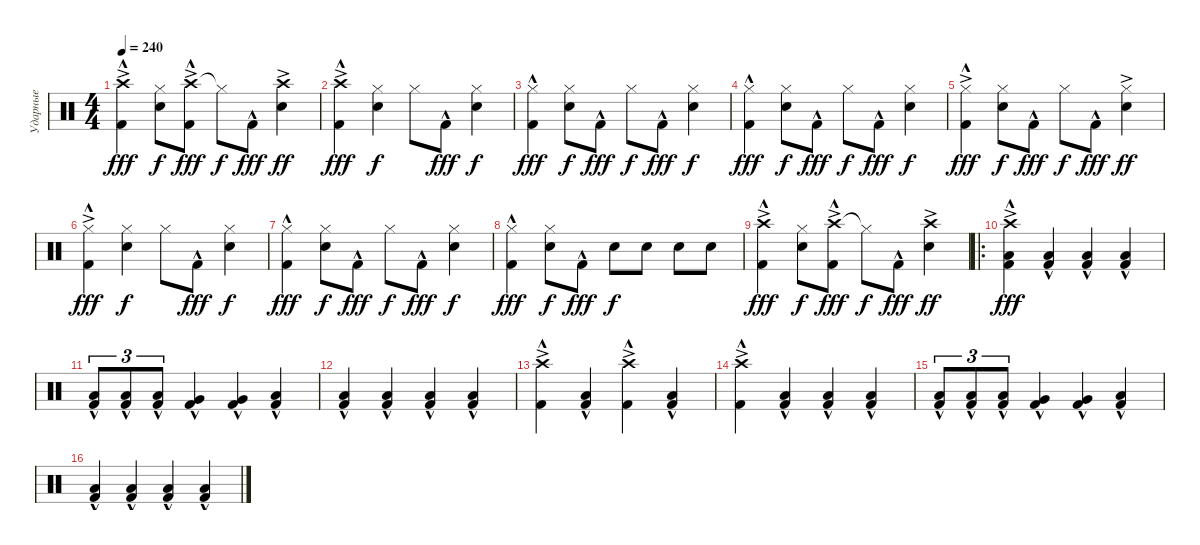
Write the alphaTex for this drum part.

\track ("Ударные" "Ударные") {instrument percussion}
\staff {score}
\articulation defaults
\ts (4 4)
\tempo 240
\clef neutral
\ks c
("Crash high (hit)"{ac} "Kick (hit) 2"{hac}).4{dy fff} ("Hi-Hat (closed)" "Snare (hit) 2").8{dy f} ("Crash high (hit)"{ac} "Kick (hit) 2"{hac}).8{dy fff} "Hi-Hat (closed)"{t}.8{dy f} "Kick (hit) 2"{hac}.8{dy fff} ("Crash high (hit)"{ac} "Snare (hit) 2").4{dy ff} |
("Crash high (hit)"{ac} "Kick (hit) 2"{hac}).4{dy fff} ("Hi-Hat (closed)" "Snare (hit) 2").4{dy f} "Hi-Hat (closed)".8 "Kick (hit) 2"{hac}.8{dy fff} ("Hi-Hat (closed)" "Snare (hit) 2").4{dy f} |
("Hi-Hat (closed)" "Kick (hit) 2"{hac}).4{dy fff} ("Hi-Hat (closed)" "Snare (hit) 2").8{dy f} "Kick (hit) 2"{hac}.8{dy fff} "Hi-Hat (closed)".8{dy f} "Kick (hit) 2"{hac}.8{dy fff} ("Hi-Hat (closed)" "Snare (hit) 2").4{dy f} |
("Hi-Hat (closed)" "Kick (hit) 2"{hac}).4{dy fff} ("Hi-Hat (closed)" "Snare (hit) 2").8{dy f} "Kick (hit) 2"{hac}.8{dy fff} "Hi-Hat (closed)".8{dy f} "Kick (hit) 2"{hac}.8{dy fff} ("Hi-Hat (closed)" "Snare (hit) 2").4{dy f} |
("Hi-Hat (closed)"{ac} "Kick (hit) 2"{hac}).4{dy fff} ("Hi-Hat (closed)" "Snare (hit) 2").8{dy f} "Kick (hit) 2"{hac}.8{dy fff} "Hi-Hat (closed)".8{dy f} "Kick (hit) 2"{hac}.8{dy fff} ("Hi-Hat (closed)"{ac} "Snare (hit) 2").4{dy ff} |
("Hi-Hat (closed)"{ac} "Kick (hit) 2"{hac}).4{dy fff} ("Hi-Hat (closed)" "Snare (hit) 2").4{dy f} "Hi-Hat (closed)".8 "Kick (hit) 2"{hac}.8{dy fff} ("Hi-Hat (closed)" "Snare (hit) 2").4{dy f} |
("Hi-Hat (closed)" "Kick (hit) 2"{hac}).4{dy fff} ("Hi-Hat (closed)" "Snare (hit) 2").8{dy f} "Kick (hit) 2"{hac}.8{dy fff} "Hi-Hat (closed)".8{dy f} "Kick (hit) 2"{hac}.8{dy fff} ("Hi-Hat (closed)" "Snare (hit) 2").4{dy f} |
("Hi-Hat (closed)" "Kick (hit) 2"{hac}).4{dy fff} ("Hi-Hat (closed)" "Snare (hit) 2").8{dy f} "Kick (hit) 2"{hac}.8{dy fff} "Snare (hit) 2".8{dy f} "Snare (hit) 2".8 "Snare (hit) 2".8 "Snare (hit) 2".8 |
("Crash high (hit)"{ac} "Kick (hit) 2"{hac}).4{dy fff} ("Hi-Hat (closed)" "Snare (hit) 2").8{dy f} ("Crash high (hit)"{ac} "Kick (hit) 2"{hac}).8{dy fff} "Hi-Hat (closed)"{t}.8{dy f} "Kick (hit) 2"{hac}.8{dy fff} ("Crash high (hit)"{ac} "Snare (hit) 2").4{dy ff} |
\ro
("Crash high (hit)"{ac} "Low Floor Tom (hit)"{hac} "Kick (hit) 2"{hac}).4{dy fff} ("Low Floor Tom (hit)"{hac} "Kick (hit) 2"{hac}).4 ("Low Floor Tom (hit)"{hac} "Kick (hit) 2"{hac}).4 ("Low Floor Tom (hit)"{hac} "Kick (hit) 2"{hac}).4 |
("Low Tom (hit)"{hac} "Kick (hit) 2"{hac}).8{tu (3 2)} ("Low Tom (hit)"{hac} "Kick (hit) 2"{hac}).8{tu (3 2)} ("Low Tom (hit)"{hac} "Kick (hit) 2"{hac}).8{tu (3 2)} ("Very Low Tom (hit)"{hac} "Kick (hit) 2"{hac}).4 ("Very Low Tom (hit)"{hac} "Kick (hit) 2"{hac}).4 ("Low Floor Tom (hit)"{hac} "Kick (hit) 2"{hac}).4 |
("Low Floor Tom (hit)"{hac} "Kick (hit) 2"{hac}).4 ("Low Floor Tom (hit)"{hac} "Kick (hit) 2"{hac}).4 ("Low Floor Tom (hit)"{hac} "Kick (hit) 2"{hac}).4 ("Low Floor Tom (hit)"{hac} "Kick (hit) 2"{hac}).4 |
("Crash high (hit)"{ac} "Kick (hit) 2"{hac}).4 ("Low Floor Tom (hit)"{hac} "Kick (hit) 2"{hac}).4 ("Crash high (hit)"{ac} "Kick (hit) 2"{hac}).4 ("Low Floor Tom (hit)"{hac} "Kick (hit) 2"{hac}).4 |
("Crash high (hit)"{ac} "Kick (hit) 2"{hac}).4 ("Low Floor Tom (hit)"{hac} "Kick (hit) 2"{hac}).4 ("Low Floor Tom (hit)"{hac} "Kick (hit) 2"{hac}).4 ("Low Floor Tom (hit)"{hac} "Kick (hit) 2"{hac}).4 |
("Low Tom (hit)"{hac} "Kick (hit) 2"{hac}).8{tu (3 2)} ("Low Tom (hit)"{hac} "Kick (hit) 2"{hac}).8{tu (3 2)} ("Low Tom (hit)"{hac} "Kick (hit) 2"{hac}).8{tu (3 2)} ("Very Low Tom (hit)"{hac} "Kick (hit) 2"{hac}).4 ("Very Low Tom (hit)"{hac} "Kick (hit) 2"{hac}).4 ("Low Floor Tom (hit)"{hac} "Kick (hit) 2"{hac}).4 |
("Low Floor Tom (hit)"{hac} "Kick (hit) 2"{hac}).4 ("Low Floor Tom (hit)"{hac} "Kick (hit) 2"{hac}).4 ("Low Floor Tom (hit)"{hac} "Kick (hit) 2"{hac}).4 ("Low Floor Tom (hit)"{hac} "Kick (hit) 2"{hac}).4
